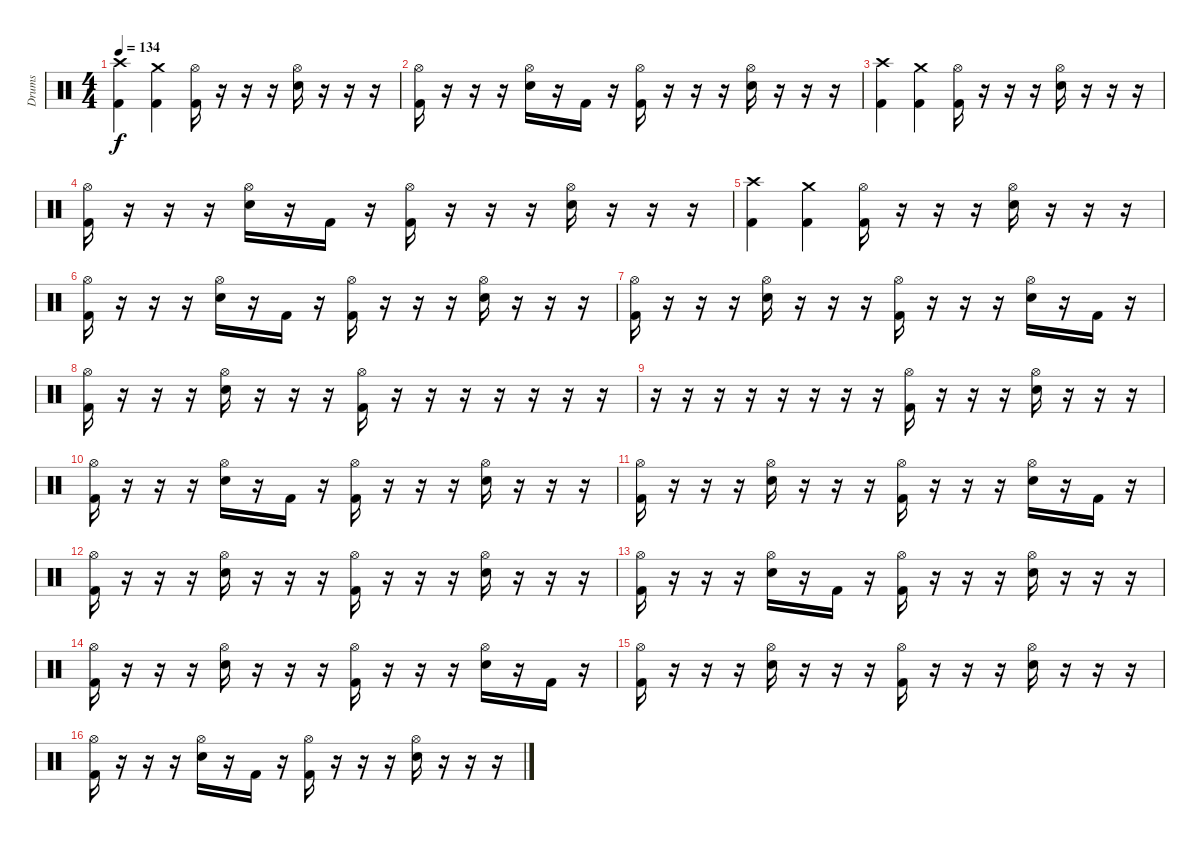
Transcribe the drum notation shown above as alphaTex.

\track ("Drums" "Drums") {instrument percussion}
\staff {score}
\articulation defaults
\ts (4 4)
\tempo 134
\clef neutral
\ks c
("Crash high (hit)" "Kick (hit) 2").4{dy f} ("Crash medium (hit)" "Kick (hit) 2").4 ("Kick (hit) 2" "Hi-Hat (open)").16 r.16 r.16 r.16 ("Snare (hit) 2" "Hi-Hat (open)").16 r.16 r.16 r.16 |
("Kick (hit) 2" "Hi-Hat (open)").16 r.16 r.16 r.16 ("Snare (hit) 2" "Hi-Hat (open)").16 r.16 "Kick (hit) 2".16 r.16 ("Kick (hit) 2" "Hi-Hat (open)").16 r.16 r.16 r.16 ("Snare (hit) 2" "Hi-Hat (open)").16 r.16 r.16 r.16 |
("Crash high (hit)" "Kick (hit) 2").4 ("Crash medium (hit)" "Kick (hit) 2").4 ("Kick (hit) 2" "Hi-Hat (open)").16 r.16 r.16 r.16 ("Snare (hit) 2" "Hi-Hat (open)").16 r.16 r.16 r.16 |
("Kick (hit) 2" "Hi-Hat (open)").16 r.16 r.16 r.16 ("Snare (hit) 2" "Hi-Hat (open)").16 r.16 "Kick (hit) 2".16 r.16 ("Kick (hit) 2" "Hi-Hat (open)").16 r.16 r.16 r.16 ("Snare (hit) 2" "Hi-Hat (open)").16 r.16 r.16 r.16 |
("Crash high (hit)" "Kick (hit) 2").4 ("Crash medium (hit)" "Kick (hit) 2").4 ("Kick (hit) 2" "Hi-Hat (open)").16 r.16 r.16 r.16 ("Snare (hit) 2" "Hi-Hat (open)").16 r.16 r.16 r.16 |
("Kick (hit) 2" "Hi-Hat (open)").16 r.16 r.16 r.16 ("Snare (hit) 2" "Hi-Hat (open)").16 r.16 "Kick (hit) 2".16 r.16 ("Kick (hit) 2" "Hi-Hat (open)").16 r.16 r.16 r.16 ("Snare (hit) 2" "Hi-Hat (open)").16 r.16 r.16 r.16 |
("Kick (hit) 2" "Hi-Hat (open)").16 r.16 r.16 r.16 ("Snare (hit) 2" "Hi-Hat (open)").16 r.16 r.16 r.16 ("Kick (hit) 2" "Hi-Hat (open)").16 r.16 r.16 r.16 ("Snare (hit) 2" "Hi-Hat (open)").16 r.16 "Kick (hit) 2".16 r.16 |
("Kick (hit) 2" "Hi-Hat (open)").16 r.16 r.16 r.16 ("Snare (hit) 2" "Hi-Hat (open)").16 r.16 r.16 r.16 ("Kick (hit) 2" "Hi-Hat (open)").16 r.16 r.16 r.16 r.16 r.16 r.16 r.16 |
r.16 r.16 r.16 r.16 r.16 r.16 r.16 r.16 ("Kick (hit) 2" "Hi-Hat (open)").16 r.16 r.16 r.16 ("Snare (hit) 2" "Hi-Hat (open)").16 r.16 r.16 r.16 |
("Kick (hit) 2" "Hi-Hat (open)").16 r.16 r.16 r.16 ("Snare (hit) 2" "Hi-Hat (open)").16 r.16 "Kick (hit) 2".16 r.16 ("Kick (hit) 2" "Hi-Hat (open)").16 r.16 r.16 r.16 ("Snare (hit) 2" "Hi-Hat (open)").16 r.16 r.16 r.16 |
("Kick (hit) 2" "Hi-Hat (open)").16 r.16 r.16 r.16 ("Snare (hit) 2" "Hi-Hat (open)").16 r.16 r.16 r.16 ("Kick (hit) 2" "Hi-Hat (open)").16 r.16 r.16 r.16 ("Snare (hit) 2" "Hi-Hat (open)").16 r.16 "Kick (hit) 2".16 r.16 |
("Kick (hit) 2" "Hi-Hat (open)").16 r.16 r.16 r.16 ("Snare (hit) 2" "Hi-Hat (open)").16 r.16 r.16 r.16 ("Kick (hit) 2" "Hi-Hat (open)").16 r.16 r.16 r.16 ("Snare (hit) 2" "Hi-Hat (open)").16 r.16 r.16 r.16 |
("Kick (hit) 2" "Hi-Hat (open)").16 r.16 r.16 r.16 ("Snare (hit) 2" "Hi-Hat (open)").16 r.16 "Kick (hit) 2".16 r.16 ("Kick (hit) 2" "Hi-Hat (open)").16 r.16 r.16 r.16 ("Snare (hit) 2" "Hi-Hat (open)").16 r.16 r.16 r.16 |
("Kick (hit) 2" "Hi-Hat (open)").16 r.16 r.16 r.16 ("Snare (hit) 2" "Hi-Hat (open)").16 r.16 r.16 r.16 ("Kick (hit) 2" "Hi-Hat (open)").16 r.16 r.16 r.16 ("Snare (hit) 2" "Hi-Hat (open)").16 r.16 "Kick (hit) 2".16 r.16 |
("Kick (hit) 2" "Hi-Hat (open)").16 r.16 r.16 r.16 ("Snare (hit) 2" "Hi-Hat (open)").16 r.16 r.16 r.16 ("Kick (hit) 2" "Hi-Hat (open)").16 r.16 r.16 r.16 ("Snare (hit) 2" "Hi-Hat (open)").16 r.16 r.16 r.16 |
("Kick (hit) 2" "Hi-Hat (open)").16 r.16 r.16 r.16 ("Snare (hit) 2" "Hi-Hat (open)").16 r.16 "Kick (hit) 2".16 r.16 ("Kick (hit) 2" "Hi-Hat (open)").16 r.16 r.16 r.16 ("Snare (hit) 2" "Hi-Hat (open)").16 r.16 r.16 r.16
